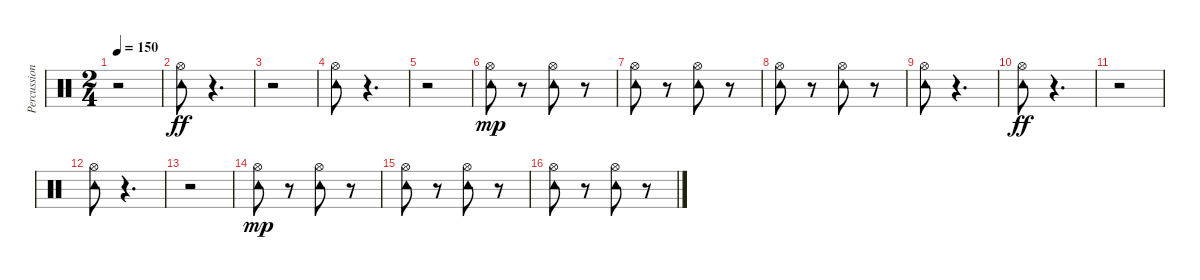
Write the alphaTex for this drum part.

\track ("Percussion" "Percussion") {instrument percussion}
\staff {score}
\articulation defaults
\ts (2 4)
\tempo 150
\clef neutral
\ks c
r.2{dy ff} |
("Tambourine (hit)" "Hi-Hat (open)").8 r.4{d} |
r.2 |
("Tambourine (hit)" "Hi-Hat (open)").8 r.4{d} |
r.2 |
("Tambourine (hit)" "Hi-Hat (open)").8{dy mp} r.8 ("Tambourine (hit)" "Hi-Hat (open)").8 r.8 |
("Tambourine (hit)" "Hi-Hat (open)").8 r.8 ("Tambourine (hit)" "Hi-Hat (open)").8 r.8 |
("Tambourine (hit)" "Hi-Hat (open)").8 r.8 ("Tambourine (hit)" "Hi-Hat (open)").8 r.8 |
("Tambourine (hit)" "Hi-Hat (open)").8 r.4{d} |
("Tambourine (hit)" "Hi-Hat (open)").8{dy ff} r.4{d} |
r.2 |
("Tambourine (hit)" "Hi-Hat (open)").8 r.4{d} |
r.2 |
("Tambourine (hit)" "Hi-Hat (open)").8{dy mp} r.8 ("Tambourine (hit)" "Hi-Hat (open)").8 r.8 |
("Tambourine (hit)" "Hi-Hat (open)").8 r.8 ("Tambourine (hit)" "Hi-Hat (open)").8 r.8 |
("Tambourine (hit)" "Hi-Hat (open)").8 r.8 ("Tambourine (hit)" "Hi-Hat (open)").8 r.8
